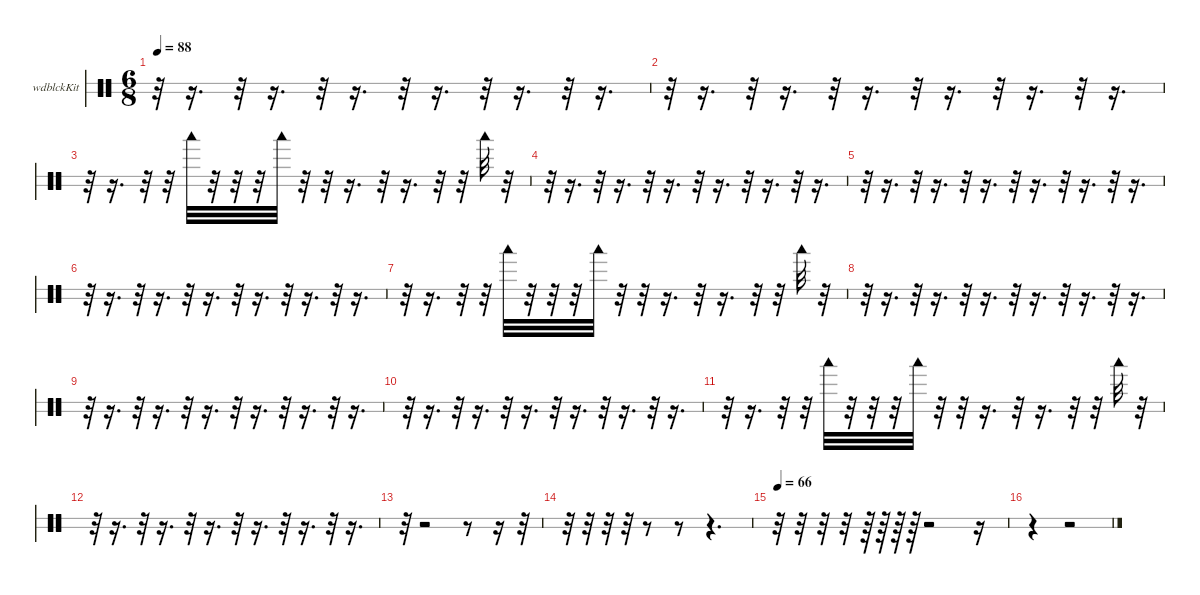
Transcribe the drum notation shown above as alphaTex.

\hideDynamics
\bracketExtendMode nobrackets
\firstSystemTrackNameOrientation horizontal
\otherSystemsTrackNameOrientation horizontal
\track ("Woodblock" "wdblckKit") {instrument percussion}
\staff {score 2}
\articulation defaults
\ts (6 8)
\tempo 88
\clef neutral
\ks c
r.32{dy mf} r.16{d} r.32 r.16{d} r.32 r.16{d} r.32 r.16{d} r.32 r.16{d} r.32 r.16{d} |
r.32 r.16{d} r.32 r.16{d} r.32 r.16{d} r.32 r.16{d} r.32 r.16{d} r.32 r.16{d} |
r.32 r.16{d} r.32 r.32 "Woodblock low (hit)".32{dy f} r.32 r.32 r.32 "Woodblock low (hit)".32 r.32 r.32 r.16{d} r.32 r.16{d} r.32 r.32 "Woodblock low (hit)".32{dy mf} r.32 |
r.32 r.16{d} r.32 r.16{d} r.32 r.16{d} r.32 r.16{d} r.32 r.16{d} r.32 r.16{d} |
r.32 r.16{d} r.32 r.16{d} r.32 r.16{d} r.32 r.16{d} r.32 r.16{d} r.32 r.16{d} |
r.32 r.16{d} r.32 r.16{d} r.32 r.16{d} r.32 r.16{d} r.32 r.16{d} r.32 r.16{d} |
r.32 r.16{d} r.32 r.32 "Woodblock low (hit)".32{dy f} r.32 r.32 r.32 "Woodblock low (hit)".32 r.32 r.32 r.16{d} r.32 r.16{d} r.32 r.32 "Woodblock low (hit)".32{dy mf} r.32 |
r.32 r.16{d} r.32 r.16{d} r.32 r.16{d} r.32 r.16{d} r.32 r.16{d} r.32 r.16{d} |
r.32 r.16{d} r.32 r.16{d} r.32 r.16{d} r.32 r.16{d} r.32 r.16{d} r.32 r.16{d} |
r.32 r.16{d} r.32 r.16{d} r.32 r.16{d} r.32 r.16{d} r.32 r.16{d} r.32 r.16{d} |
r.32 r.16{d} r.32 r.32 "Woodblock low (hit)".32{dy f} r.32 r.32 r.32 "Woodblock low (hit)".32 r.32 r.32 r.16{d} r.32 r.16{d} r.32 r.32 "Woodblock low (hit)".32{dy mf} r.32 |
r.32 r.16{d} r.32 r.16{d} r.32 r.16{d} r.32 r.16{d} r.32 r.16{d} r.32 r.16{d} |
r.32 r.2 r.8 r.16 r.32 |
r.32 r.32 r.32 r.32 r.8 r.8 r.4{d} |
\tempo 66
r.32 r.32 r.32 r.32 r.64 r.64 r.64 r.64 r.2 r.16 |
r.4 r.2
